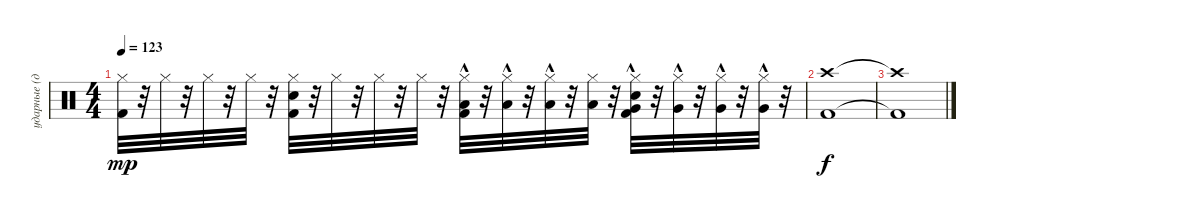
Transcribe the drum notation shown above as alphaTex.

\track ("ударные (драм-машина)" "ударные (д") {instrument percussion}
\staff {score}
\articulation defaults
\ts (4 4)
\tempo 123
\clef neutral
\ks c
("Kick (hit) 2" "Hi-Hat (closed)").32{dy mp} r.32 "Hi-Hat (closed)".32 r.32 "Hi-Hat (closed)".32 r.32 "Hi-Hat (closed)".32 r.32 ("Kick (hit) 2" "Snare (hit) 2" "Hi-Hat (closed)").32 r.32 "Hi-Hat (closed)".32 r.32 "Hi-Hat (closed)".32 r.32 "Hi-Hat (closed)".32 r.32 ("Low Tom (hit)"{hac} "Kick (hit) 2" "Hi-Hat (closed)").32 r.32 ("Low Tom (hit)"{hac} "Hi-Hat (closed)").32 r.32 ("Low Tom (hit)"{hac} "Hi-Hat (closed)").32 r.32 ("Low Tom (hit)" "Hi-Hat (closed)").32 r.32 ("Very Low Tom (hit)"{hac} "Kick (hit) 2" "Snare (hit) 2" "Hi-Hat (closed)").32 r.32 ("Very Low Tom (hit)"{hac} "Hi-Hat (closed)").32 r.32 ("Very Low Tom (hit)"{hac} "Hi-Hat (closed)").32 r.32 ("Very Low Tom (hit)"{hac} "Hi-Hat (closed)").32 r.32 |
("Kick (hit) 2" "Crash high (hit)").1{dy f} |
("Kick (hit) 2"{t} "Crash high (hit)"{t}).1
